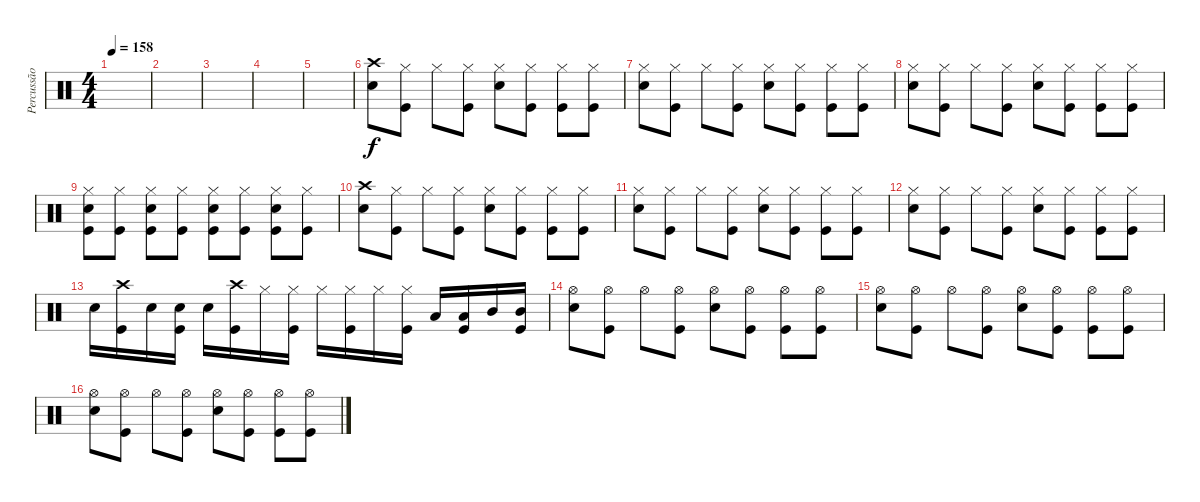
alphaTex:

\track ("Percussão" "Percussão") {instrument percussion}
\staff {score}
\articulation defaults
\ts (4 4)
\tempo 158
\clef neutral
\ks c
|
|
|
|
|
("Crash high (hit)" "Electric Snare (hit)").8 ("Hi-Hat (closed)" "Kick (hit)").8 "Hi-Hat (closed)".8 ("Hi-Hat (closed)" "Kick (hit)").8 ("Hi-Hat (closed)" "Electric Snare (hit)").8 ("Hi-Hat (closed)" "Kick (hit)").8 ("Hi-Hat (closed)" "Kick (hit)").8 ("Hi-Hat (closed)" "Kick (hit)").8 |
("Hi-Hat (closed)" "Electric Snare (hit)").8 ("Hi-Hat (closed)" "Kick (hit)").8 "Hi-Hat (closed)".8 ("Hi-Hat (closed)" "Kick (hit)").8 ("Hi-Hat (closed)" "Electric Snare (hit)").8 ("Hi-Hat (closed)" "Kick (hit)").8 ("Hi-Hat (closed)" "Kick (hit)").8 ("Hi-Hat (closed)" "Kick (hit)").8 |
("Hi-Hat (closed)" "Electric Snare (hit)").8 ("Hi-Hat (closed)" "Kick (hit)").8 "Hi-Hat (closed)".8 ("Hi-Hat (closed)" "Kick (hit)").8 ("Hi-Hat (closed)" "Electric Snare (hit)").8 ("Hi-Hat (closed)" "Kick (hit)").8 ("Hi-Hat (closed)" "Kick (hit)").8 ("Hi-Hat (closed)" "Kick (hit)").8 |
("Hi-Hat (closed)" "Electric Snare (hit)" "Kick (hit)").8 ("Hi-Hat (closed)" "Kick (hit)").8 ("Hi-Hat (closed)" "Electric Snare (hit)" "Kick (hit)").8 ("Hi-Hat (closed)" "Kick (hit)").8 ("Hi-Hat (closed)" "Electric Snare (hit)" "Kick (hit)").8 ("Hi-Hat (closed)" "Kick (hit)").8 ("Hi-Hat (closed)" "Electric Snare (hit)" "Kick (hit)").8 ("Hi-Hat (closed)" "Kick (hit)").8 |
("Crash high (hit)" "Electric Snare (hit)").8 ("Hi-Hat (closed)" "Kick (hit)").8 "Hi-Hat (closed)".8 ("Hi-Hat (closed)" "Kick (hit)").8 ("Hi-Hat (closed)" "Electric Snare (hit)").8 ("Hi-Hat (closed)" "Kick (hit)").8 ("Hi-Hat (closed)" "Kick (hit)").8 ("Hi-Hat (closed)" "Kick (hit)").8 |
("Hi-Hat (closed)" "Electric Snare (hit)").8 ("Hi-Hat (closed)" "Kick (hit)").8 "Hi-Hat (closed)".8 ("Hi-Hat (closed)" "Kick (hit)").8 ("Hi-Hat (closed)" "Electric Snare (hit)").8 ("Hi-Hat (closed)" "Kick (hit)").8 ("Hi-Hat (closed)" "Kick (hit)").8 ("Hi-Hat (closed)" "Kick (hit)").8 |
("Hi-Hat (closed)" "Electric Snare (hit)").8 ("Hi-Hat (closed)" "Kick (hit)").8 "Hi-Hat (closed)".8 ("Hi-Hat (closed)" "Kick (hit)").8 ("Hi-Hat (closed)" "Electric Snare (hit)").8 ("Hi-Hat (closed)" "Kick (hit)").8 ("Hi-Hat (closed)" "Kick (hit)").8 ("Hi-Hat (closed)" "Kick (hit)").8 |
"Electric Snare (hit)".16 ("Crash high (hit)" "Kick (hit)").16 "Electric Snare (hit)".16 ("Electric Snare (hit)" "Kick (hit)").16 "Electric Snare (hit)".16 ("Crash high (hit)" "Kick (hit)").16 "Hi-Hat (closed)".16 ("Hi-Hat (closed)" "Kick (hit)").16 "Hi-Hat (closed)".16 ("Hi-Hat (closed)" "Kick (hit)").16 "Hi-Hat (closed)".16 ("Hi-Hat (closed)" "Kick (hit)").16 "Low Tom (hit)".16 ("Low Tom (hit)" "Kick (hit)").16 "Mid Tom (hit)".16 ("Mid Tom (hit)" "Kick (hit)").16 |
("Hi-Hat (open)" "Electric Snare (hit)").8 ("Hi-Hat (open)" "Kick (hit)").8 "Hi-Hat (open)".8 ("Hi-Hat (open)" "Kick (hit)").8 ("Hi-Hat (open)" "Electric Snare (hit)").8 ("Hi-Hat (open)" "Kick (hit)").8 ("Hi-Hat (open)" "Kick (hit)").8 ("Hi-Hat (open)" "Kick (hit)").8 |
("Hi-Hat (open)" "Electric Snare (hit)").8 ("Hi-Hat (open)" "Kick (hit)").8 "Hi-Hat (open)".8 ("Hi-Hat (open)" "Kick (hit)").8 ("Hi-Hat (open)" "Electric Snare (hit)").8 ("Hi-Hat (open)" "Kick (hit)").8 ("Hi-Hat (open)" "Kick (hit)").8 ("Hi-Hat (open)" "Kick (hit)").8 |
("Hi-Hat (open)" "Electric Snare (hit)").8 ("Hi-Hat (open)" "Kick (hit)").8 "Hi-Hat (open)".8 ("Hi-Hat (open)" "Kick (hit)").8 ("Hi-Hat (open)" "Electric Snare (hit)").8 ("Hi-Hat (open)" "Kick (hit)").8 ("Hi-Hat (open)" "Kick (hit)").8 ("Hi-Hat (open)" "Kick (hit)").8
